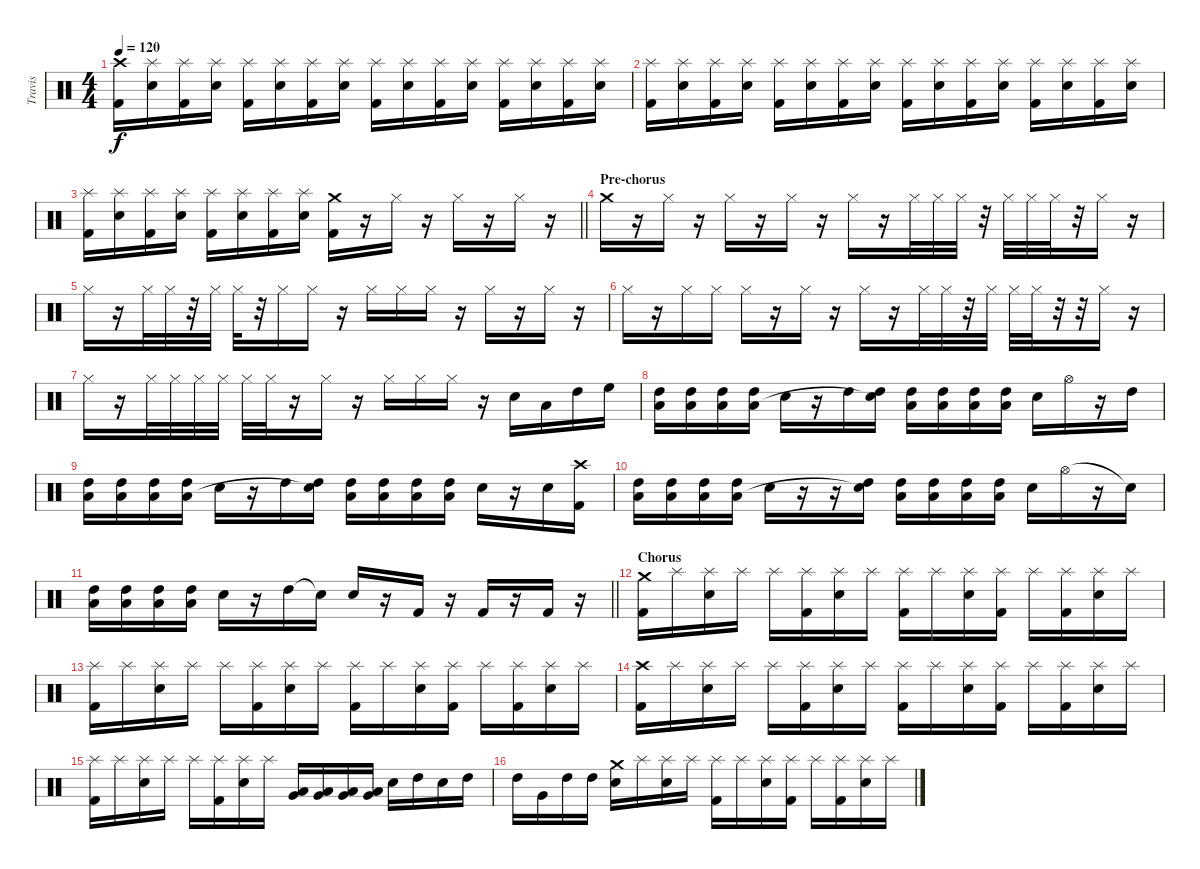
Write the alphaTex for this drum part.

\track ("Travis" "Travis") {instrument percussion}
\staff {score}
\articulation defaults
\ts (4 4)
\tempo 120
\clef neutral
\ks c
("Crash high (hit)" "Kick (hit) 2").16{dy f} ("Splash (hit)" "Electric Snare (hit)").16 ("Splash (hit)" "Kick (hit) 2").16 ("Splash (hit)" "Electric Snare (hit)").16 ("Splash (hit)" "Kick (hit) 2").16 ("Splash (hit)" "Electric Snare (hit)").16 ("Splash (hit)" "Kick (hit) 2").16 ("Splash (hit)" "Electric Snare (hit)").16 ("Splash (hit)" "Kick (hit) 2").16 ("Splash (hit)" "Electric Snare (hit)").16 ("Splash (hit)" "Kick (hit) 2").16 ("Splash (hit)" "Electric Snare (hit)").16 ("Splash (hit)" "Kick (hit) 2").16 ("Splash (hit)" "Electric Snare (hit)").16 ("Splash (hit)" "Kick (hit) 2").16 ("Splash (hit)" "Electric Snare (hit)").16 |
("Splash (hit)" "Kick (hit) 2").16 ("Splash (hit)" "Electric Snare (hit)").16 ("Splash (hit)" "Kick (hit) 2").16 ("Splash (hit)" "Electric Snare (hit)").16 ("Splash (hit)" "Kick (hit) 2").16 ("Splash (hit)" "Electric Snare (hit)").16 ("Splash (hit)" "Kick (hit) 2").16 ("Splash (hit)" "Electric Snare (hit)").16 ("Splash (hit)" "Kick (hit) 2").16 ("Splash (hit)" "Electric Snare (hit)").16 ("Splash (hit)" "Kick (hit) 2").16 ("Splash (hit)" "Electric Snare (hit)").16 ("Splash (hit)" "Kick (hit) 2").16 ("Splash (hit)" "Electric Snare (hit)").16 ("Splash (hit)" "Kick (hit) 2").16 ("Splash (hit)" "Electric Snare (hit)").16 |
\barLineRight lightlight
("Splash (hit)" "Kick (hit) 2").16 ("Splash (hit)" "Electric Snare (hit)").16 ("Splash (hit)" "Kick (hit) 2").16 ("Splash (hit)" "Electric Snare (hit)").16 ("Splash (hit)" "Kick (hit) 2").16 ("Splash (hit)" "Electric Snare (hit)").16 ("Splash (hit)" "Kick (hit) 2").16 ("Splash (hit)" "Electric Snare (hit)").16 ("Crash medium (hit)" "Kick (hit) 2").16 r.16 "Hi-Hat (closed)".16 r.16 "Hi-Hat (closed)".16 r.16 "Hi-Hat (closed)".16 r.16 |
\section ("" "Pre-chorus")
"Crash medium (hit)".16 r.16 "Hi-Hat (closed)".16 r.16 "Hi-Hat (closed)".16 r.16 "Hi-Hat (closed)".16 r.16 "Hi-Hat (closed)".16 r.16 "Hi-Hat (closed)".32 "Hi-Hat (closed)".32 "Hi-Hat (closed)".32 r.32 "Hi-Hat (closed)".32 "Hi-Hat (closed)".32 "Hi-Hat (closed)".32 r.32 "Hi-Hat (closed)".16 r.16 |
"Hi-Hat (closed)".16 r.16 "Hi-Hat (closed)".32 "Hi-Hat (closed)".32 r.32 "Hi-Hat (closed)".32 "Hi-Hat (closed)".32 r.32 "Hi-Hat (closed)".16 "Hi-Hat (closed)".16 r.16 "Hi-Hat (closed)".16 "Hi-Hat (closed)".16 "Hi-Hat (closed)".16 r.16 "Hi-Hat (closed)".16 r.16 "Hi-Hat (closed)".16 r.16 |
"Hi-Hat (closed)".16 r.16 "Hi-Hat (closed)".16 "Hi-Hat (closed)".16 "Hi-Hat (closed)".16 r.16 "Hi-Hat (closed)".16 r.16 "Hi-Hat (closed)".16 r.16 "Hi-Hat (closed)".32 "Hi-Hat (closed)".32 r.32 "Hi-Hat (closed)".32 "Hi-Hat (closed)".32 "Hi-Hat (closed)".32 r.32 r.32 "Hi-Hat (closed)".16 r.16 |
"Hi-Hat (closed)".16 r.16 "Hi-Hat (closed)".32 "Hi-Hat (closed)".32 "Hi-Hat (closed)".32 "Hi-Hat (closed)".32 "Hi-Hat (closed)".32 "Hi-Hat (closed)".32 r.16 "Hi-Hat (closed)".16 r.16 "Hi-Hat (closed)".16 "Hi-Hat (closed)".16 "Hi-Hat (closed)".16 r.16 "Electric Snare (hit)".16 "Low Tom (hit)".16 "High Tom (hit)".16 "High Floor Tom (hit)".16 |
("High Tom (hit)" "Low Tom (hit)").16 ("High Tom (hit)" "Low Tom (hit)").16 ("High Tom (hit)" "Low Tom (hit)").16 ("High Tom (hit)" "Low Tom (hit)").16 "Electric Snare (hit)".16 r.16 "High Tom (hit)".16 ("High Tom (hit)" "Snare (hit)"{t}).16 ("High Tom (hit)" "Low Tom (hit)").16 ("High Tom (hit)" "Low Tom (hit)").16 ("High Tom (hit)" "Low Tom (hit)").16 ("High Tom (hit)" "Low Tom (hit)").16 "Electric Snare (hit)".16 "Hi-Hat (open)".16 r.16 "High Tom (hit)".16 |
("High Tom (hit)" "Low Tom (hit)").16 ("High Tom (hit)" "Low Tom (hit)").16 ("High Tom (hit)" "Low Tom (hit)").16 ("High Tom (hit)" "Low Tom (hit)").16 "Electric Snare (hit)".16 r.16 "High Tom (hit)".16 ("High Tom (hit)" "Snare (hit)"{t}).16 ("High Tom (hit)" "Low Tom (hit)").16 ("High Tom (hit)" "Low Tom (hit)").16 ("High Tom (hit)" "Low Tom (hit)").16 ("High Tom (hit)" "Low Tom (hit)").16 "Electric Snare (hit)".16 r.16 "Electric Snare (hit)".16 ("Crash high (hit)" "Kick (hit) 2").16 |
("High Tom (hit)" "Low Tom (hit)").16 ("High Tom (hit)" "Low Tom (hit)").16 ("High Tom (hit)" "Low Tom (hit)").16 ("High Tom (hit)" "Low Tom (hit)").16 "Electric Snare (hit)".16 r.16 r.16 ("High Tom (hit)" "Snare (hit)"{t}).16 ("High Tom (hit)" "Low Tom (hit)").16 ("High Tom (hit)" "Low Tom (hit)").16 ("High Tom (hit)" "Low Tom (hit)").16 ("High Tom (hit)" "Low Tom (hit)").16 "Electric Snare (hit)".16 "Hi-Hat (open)".16 r.16 "Snare (hit)"{t}.16 |
\barLineRight lightlight
("High Tom (hit)" "Low Tom (hit)").16 ("High Tom (hit)" "Low Tom (hit)").16 ("High Tom (hit)" "Low Tom (hit)").16 ("High Tom (hit)" "Low Tom (hit)").16 "Electric Snare (hit)".16 r.16 "High Tom (hit)".16 "Snare (hit)"{t}.16 "Electric Snare (hit)".16 r.16 "Kick (hit) 2".16 r.16 "Kick (hit) 2".16 r.16 "Kick (hit) 2".16 r.16 |
\section ("" "Chorus")
("Crash medium (hit)" "Kick (hit) 2").16 "Splash (hit)".16 ("Splash (hit)" "Electric Snare (hit)").16 "Splash (hit)".16 "Splash (hit)".16 ("Splash (hit)" "Kick (hit) 2").16 ("Splash (hit)" "Electric Snare (hit)").16 "Splash (hit)".16 ("Splash (hit)" "Kick (hit) 2").16 "Splash (hit)".16 ("Splash (hit)" "Electric Snare (hit)").16 ("Splash (hit)" "Kick (hit) 2").16 "Splash (hit)".16 ("Splash (hit)" "Kick (hit) 2").16 ("Splash (hit)" "Electric Snare (hit)").16 "Splash (hit)".16 |
("Splash (hit)" "Kick (hit) 2").16 "Splash (hit)".16 ("Splash (hit)" "Electric Snare (hit)").16 "Splash (hit)".16 "Splash (hit)".16 ("Splash (hit)" "Kick (hit) 2").16 ("Splash (hit)" "Electric Snare (hit)").16 "Splash (hit)".16 ("Splash (hit)" "Kick (hit) 2").16 "Splash (hit)".16 ("Splash (hit)" "Electric Snare (hit)").16 ("Splash (hit)" "Kick (hit) 2").16 "Splash (hit)".16 ("Splash (hit)" "Kick (hit) 2").16 ("Splash (hit)" "Electric Snare (hit)").16 "Splash (hit)".16 |
("Crash high (hit)" "Kick (hit) 2").16 "Splash (hit)".16 ("Splash (hit)" "Electric Snare (hit)").16 "Splash (hit)".16 "Splash (hit)".16 ("Splash (hit)" "Kick (hit) 2").16 ("Splash (hit)" "Electric Snare (hit)").16 "Splash (hit)".16 ("Splash (hit)" "Kick (hit) 2").16 "Splash (hit)".16 ("Splash (hit)" "Electric Snare (hit)").16 ("Splash (hit)" "Kick (hit) 2").16 "Splash (hit)".16 ("Splash (hit)" "Kick (hit) 2").16 ("Splash (hit)" "Electric Snare (hit)").16 "Splash (hit)".16 |
("Splash (hit)" "Kick (hit) 2").16 "Splash (hit)".16 ("Splash (hit)" "Electric Snare (hit)").16 "Splash (hit)".16 "Splash (hit)".16 ("Splash (hit)" "Kick (hit) 2").16 ("Splash (hit)" "Electric Snare (hit)").16 "Splash (hit)".16 ("Low Floor Tom (hit)" "Very Low Tom (hit)").16 ("Very Low Tom (hit)" "Low Tom (hit)").16 ("Low Floor Tom (hit)" "Very Low Tom (hit)").16 ("Very Low Tom (hit)" "Low Tom (hit)").16 "Electric Snare (hit)".16 "High Tom (hit)".16 "Electric Snare (hit)".16 "High Tom (hit)".16 |
"High Tom (hit)".16 "Very Low Tom (hit)".16 "High Tom (hit)".16 "High Tom (hit)".16 ("Crash medium (hit)" "Electric Snare (hit)").16 "Splash (hit)".16 ("Splash (hit)" "Electric Snare (hit)").16 "Splash (hit)".16 ("Splash (hit)" "Kick (hit) 2").16 "Splash (hit)".16 ("Splash (hit)" "Electric Snare (hit)").16 ("Splash (hit)" "Kick (hit) 2").16 "Splash (hit)".16 ("Splash (hit)" "Kick (hit) 2").16 ("Splash (hit)" "Electric Snare (hit)").16 "Splash (hit)".16
